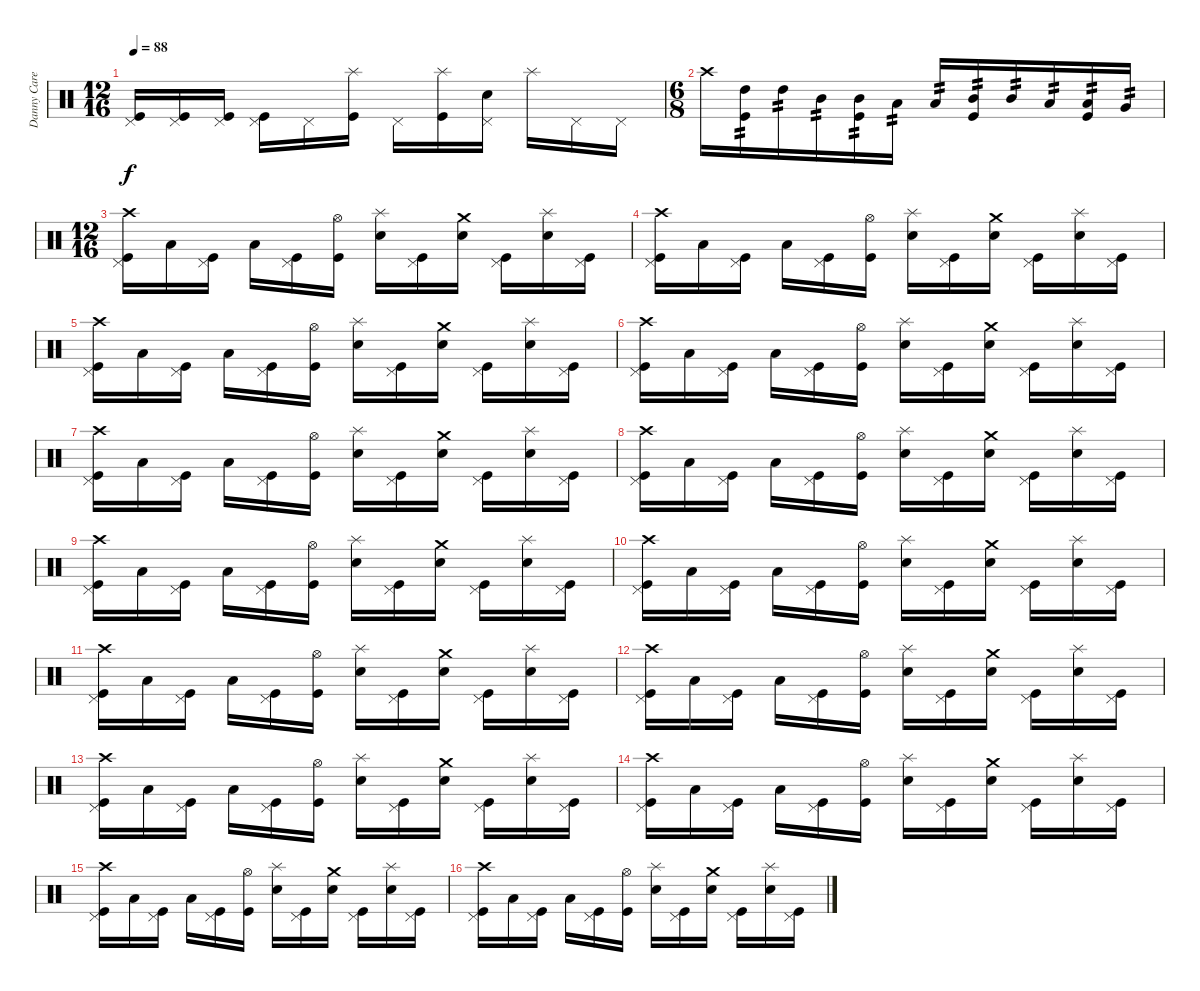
\track ("Danny Carey" "Danny Care") {instrument percussion}
\staff {score}
\articulation defaults
\ts (12 16)
\tempo 88
\clef neutral
\ks c
("Pedal Hi-Hat (hit)" "Kick (hit)").16{dy f} ("Pedal Hi-Hat (hit)" "Kick (hit)").16 ("Pedal Hi-Hat (hit)" "Kick (hit)").16 ("Pedal Hi-Hat (hit)" "Kick (hit)").16 "Pedal Hi-Hat (hit)".16 ("Splash (hit)" "Kick (hit)").16 "Pedal Hi-Hat (hit)".16 ("Splash (hit)" "Kick (hit)").16 ("Pedal Hi-Hat (hit)" "Electric Snare (hit)").16 "Splash (hit)".16 "Pedal Hi-Hat (hit)".16 "Pedal Hi-Hat (hit)".16 |
\ts (6 8)
"Crash high (hit)".16 ("High Tom (hit)" "Kick (hit)").16{tp 2} "High Tom (hit)".16{tp 2} "Mid Tom (hit)".16{tp 2} ("Mid Tom (hit)" "Kick (hit)").16{tp 2} "Low Tom (hit)".16{tp 2} "Low Tom (hit)".16{tp 2} ("Mid Tom (hit)" "Kick (hit)").16{tp 2} "Mid Tom (hit)".16{tp 2} "Low Tom (hit)".16{tp 2} ("Low Tom (hit)" "Kick (hit)").16{tp 2} "Very Low Tom (hit)".16{tp 2} |
\ts (12 16)
("Crash high (hit)" "Pedal Hi-Hat (hit)" "Kick (hit)").16 "Low Floor Tom (hit)".16 ("Pedal Hi-Hat (hit)" "Kick (hit)").16 "Low Floor Tom (hit)".16 ("Pedal Hi-Hat (hit)" "Kick (hit)").16 ("Hi-Hat (open)" "Kick (hit)").16 ("Splash (hit)" "Electric Snare (hit)").16 ("Pedal Hi-Hat (hit)" "Kick (hit)").16 ("Crash medium (hit)" "Electric Snare (hit)").16 ("Pedal Hi-Hat (hit)" "Kick (hit)").16 ("Splash (hit)" "Electric Snare (hit)").16 ("Pedal Hi-Hat (hit)" "Kick (hit)").16 |
("Crash high (hit)" "Pedal Hi-Hat (hit)" "Kick (hit)").16 "Low Floor Tom (hit)".16 ("Pedal Hi-Hat (hit)" "Kick (hit)").16 "Low Floor Tom (hit)".16 ("Pedal Hi-Hat (hit)" "Kick (hit)").16 ("Hi-Hat (open)" "Kick (hit)").16 ("Splash (hit)" "Electric Snare (hit)").16 ("Pedal Hi-Hat (hit)" "Kick (hit)").16 ("Crash medium (hit)" "Electric Snare (hit)").16 ("Pedal Hi-Hat (hit)" "Kick (hit)").16 ("Splash (hit)" "Electric Snare (hit)").16 ("Pedal Hi-Hat (hit)" "Kick (hit)").16 |
("Crash high (hit)" "Pedal Hi-Hat (hit)" "Kick (hit)").16 "Low Floor Tom (hit)".16 ("Pedal Hi-Hat (hit)" "Kick (hit)").16 "Low Floor Tom (hit)".16 ("Pedal Hi-Hat (hit)" "Kick (hit)").16 ("Hi-Hat (open)" "Kick (hit)").16 ("Splash (hit)" "Electric Snare (hit)").16 ("Pedal Hi-Hat (hit)" "Kick (hit)").16 ("Crash medium (hit)" "Electric Snare (hit)").16 ("Pedal Hi-Hat (hit)" "Kick (hit)").16 ("Splash (hit)" "Electric Snare (hit)").16 ("Pedal Hi-Hat (hit)" "Kick (hit)").16 |
("Crash high (hit)" "Pedal Hi-Hat (hit)" "Kick (hit)").16 "Low Floor Tom (hit)".16 ("Pedal Hi-Hat (hit)" "Kick (hit)").16 "Low Floor Tom (hit)".16 ("Pedal Hi-Hat (hit)" "Kick (hit)").16 ("Hi-Hat (open)" "Kick (hit)").16 ("Splash (hit)" "Electric Snare (hit)").16 ("Pedal Hi-Hat (hit)" "Kick (hit)").16 ("Crash medium (hit)" "Electric Snare (hit)").16 ("Pedal Hi-Hat (hit)" "Kick (hit)").16 ("Splash (hit)" "Electric Snare (hit)").16 ("Pedal Hi-Hat (hit)" "Kick (hit)").16 |
("Crash high (hit)" "Pedal Hi-Hat (hit)" "Kick (hit)").16 "Low Floor Tom (hit)".16 ("Pedal Hi-Hat (hit)" "Kick (hit)").16 "Low Floor Tom (hit)".16 ("Pedal Hi-Hat (hit)" "Kick (hit)").16 ("Hi-Hat (open)" "Kick (hit)").16 ("Splash (hit)" "Electric Snare (hit)").16 ("Pedal Hi-Hat (hit)" "Kick (hit)").16 ("Crash medium (hit)" "Electric Snare (hit)").16 ("Pedal Hi-Hat (hit)" "Kick (hit)").16 ("Splash (hit)" "Electric Snare (hit)").16 ("Pedal Hi-Hat (hit)" "Kick (hit)").16 |
("Crash high (hit)" "Pedal Hi-Hat (hit)" "Kick (hit)").16 "Low Floor Tom (hit)".16 ("Pedal Hi-Hat (hit)" "Kick (hit)").16 "Low Floor Tom (hit)".16 ("Pedal Hi-Hat (hit)" "Kick (hit)").16 ("Hi-Hat (open)" "Kick (hit)").16 ("Splash (hit)" "Electric Snare (hit)").16 ("Pedal Hi-Hat (hit)" "Kick (hit)").16 ("Crash medium (hit)" "Electric Snare (hit)").16 ("Pedal Hi-Hat (hit)" "Kick (hit)").16 ("Splash (hit)" "Electric Snare (hit)").16 ("Pedal Hi-Hat (hit)" "Kick (hit)").16 |
("Crash high (hit)" "Pedal Hi-Hat (hit)" "Kick (hit)").16 "Low Floor Tom (hit)".16 ("Pedal Hi-Hat (hit)" "Kick (hit)").16 "Low Floor Tom (hit)".16 ("Pedal Hi-Hat (hit)" "Kick (hit)").16 ("Hi-Hat (open)" "Kick (hit)").16 ("Splash (hit)" "Electric Snare (hit)").16 ("Pedal Hi-Hat (hit)" "Kick (hit)").16 ("Crash medium (hit)" "Electric Snare (hit)").16 ("Pedal Hi-Hat (hit)" "Kick (hit)").16 ("Splash (hit)" "Electric Snare (hit)").16 ("Pedal Hi-Hat (hit)" "Kick (hit)").16 |
("Crash high (hit)" "Pedal Hi-Hat (hit)" "Kick (hit)").16 "Low Floor Tom (hit)".16 ("Pedal Hi-Hat (hit)" "Kick (hit)").16 "Low Floor Tom (hit)".16 ("Pedal Hi-Hat (hit)" "Kick (hit)").16 ("Hi-Hat (open)" "Kick (hit)").16 ("Splash (hit)" "Electric Snare (hit)").16 ("Pedal Hi-Hat (hit)" "Kick (hit)").16 ("Crash medium (hit)" "Electric Snare (hit)").16 ("Pedal Hi-Hat (hit)" "Kick (hit)").16 ("Splash (hit)" "Electric Snare (hit)").16 ("Pedal Hi-Hat (hit)" "Kick (hit)").16 |
("Crash high (hit)" "Pedal Hi-Hat (hit)" "Kick (hit)").16 "Low Floor Tom (hit)".16 ("Pedal Hi-Hat (hit)" "Kick (hit)").16 "Low Floor Tom (hit)".16 ("Pedal Hi-Hat (hit)" "Kick (hit)").16 ("Hi-Hat (open)" "Kick (hit)").16 ("Splash (hit)" "Electric Snare (hit)").16 ("Pedal Hi-Hat (hit)" "Kick (hit)").16 ("Crash medium (hit)" "Electric Snare (hit)").16 ("Pedal Hi-Hat (hit)" "Kick (hit)").16 ("Splash (hit)" "Electric Snare (hit)").16 ("Pedal Hi-Hat (hit)" "Kick (hit)").16 |
("Crash high (hit)" "Pedal Hi-Hat (hit)" "Kick (hit)").16 "Low Floor Tom (hit)".16 ("Pedal Hi-Hat (hit)" "Kick (hit)").16 "Low Floor Tom (hit)".16 ("Pedal Hi-Hat (hit)" "Kick (hit)").16 ("Hi-Hat (open)" "Kick (hit)").16 ("Splash (hit)" "Electric Snare (hit)").16 ("Pedal Hi-Hat (hit)" "Kick (hit)").16 ("Crash medium (hit)" "Electric Snare (hit)").16 ("Pedal Hi-Hat (hit)" "Kick (hit)").16 ("Splash (hit)" "Electric Snare (hit)").16 ("Pedal Hi-Hat (hit)" "Kick (hit)").16 |
("Crash high (hit)" "Pedal Hi-Hat (hit)" "Kick (hit)").16 "Low Floor Tom (hit)".16 ("Pedal Hi-Hat (hit)" "Kick (hit)").16 "Low Floor Tom (hit)".16 ("Pedal Hi-Hat (hit)" "Kick (hit)").16 ("Hi-Hat (open)" "Kick (hit)").16 ("Splash (hit)" "Electric Snare (hit)").16 ("Pedal Hi-Hat (hit)" "Kick (hit)").16 ("Crash medium (hit)" "Electric Snare (hit)").16 ("Pedal Hi-Hat (hit)" "Kick (hit)").16 ("Splash (hit)" "Electric Snare (hit)").16 ("Pedal Hi-Hat (hit)" "Kick (hit)").16 |
("Crash high (hit)" "Pedal Hi-Hat (hit)" "Kick (hit)").16 "Low Floor Tom (hit)".16 ("Pedal Hi-Hat (hit)" "Kick (hit)").16 "Low Floor Tom (hit)".16 ("Pedal Hi-Hat (hit)" "Kick (hit)").16 ("Hi-Hat (open)" "Kick (hit)").16 ("Splash (hit)" "Electric Snare (hit)").16 ("Pedal Hi-Hat (hit)" "Kick (hit)").16 ("Crash medium (hit)" "Electric Snare (hit)").16 ("Pedal Hi-Hat (hit)" "Kick (hit)").16 ("Splash (hit)" "Electric Snare (hit)").16 ("Pedal Hi-Hat (hit)" "Kick (hit)").16 |
("Crash high (hit)" "Pedal Hi-Hat (hit)" "Kick (hit)").16 "Low Floor Tom (hit)".16 ("Pedal Hi-Hat (hit)" "Kick (hit)").16 "Low Floor Tom (hit)".16 ("Pedal Hi-Hat (hit)" "Kick (hit)").16 ("Hi-Hat (open)" "Kick (hit)").16 ("Splash (hit)" "Electric Snare (hit)").16 ("Pedal Hi-Hat (hit)" "Kick (hit)").16 ("Crash medium (hit)" "Electric Snare (hit)").16 ("Pedal Hi-Hat (hit)" "Kick (hit)").16 ("Splash (hit)" "Electric Snare (hit)").16 ("Pedal Hi-Hat (hit)" "Kick (hit)").16 |
("Crash high (hit)" "Pedal Hi-Hat (hit)" "Kick (hit)").16 "Low Floor Tom (hit)".16 ("Pedal Hi-Hat (hit)" "Kick (hit)").16 "Low Floor Tom (hit)".16 ("Pedal Hi-Hat (hit)" "Kick (hit)").16 ("Hi-Hat (open)" "Kick (hit)").16 ("Splash (hit)" "Electric Snare (hit)").16 ("Pedal Hi-Hat (hit)" "Kick (hit)").16 ("Crash medium (hit)" "Electric Snare (hit)").16 ("Pedal Hi-Hat (hit)" "Kick (hit)").16 ("Splash (hit)" "Electric Snare (hit)").16 ("Pedal Hi-Hat (hit)" "Kick (hit)").16
